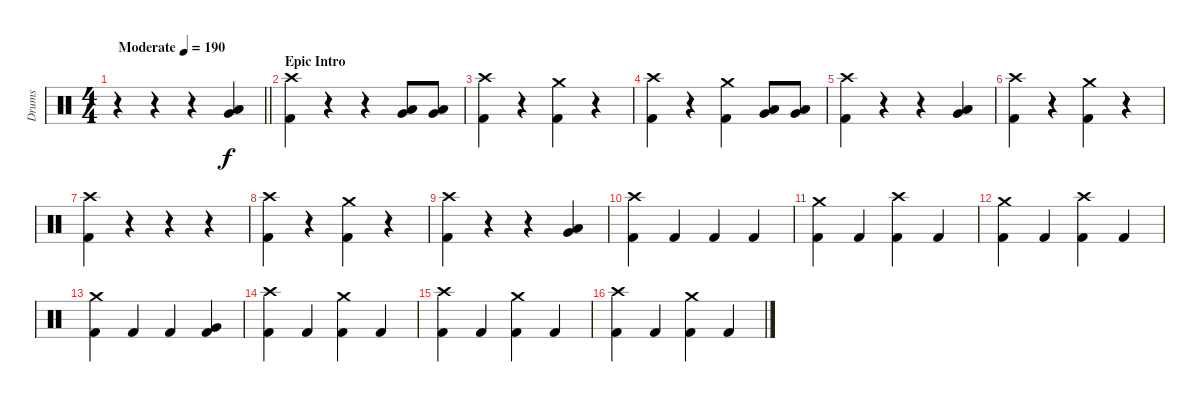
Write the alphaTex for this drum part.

\track ("Drums" "Drums") {instrument percussion}
\staff {score}
\articulation defaults
\ts (4 4)
\tempo (190 "Moderate")
\clef neutral
\barLineRight lightlight
\ks c
r.4{dy f} r.4 r.4 ("Very Low Tom (hit)" "Low Floor Tom (hit)").4 |
\section ("" "Epic Intro")
("Crash high (hit)" "Kick (hit) 2").4 r.4 r.4 ("Very Low Tom (hit)" "Low Floor Tom (hit)").8 ("Very Low Tom (hit)" "Low Floor Tom (hit)").8 |
("Crash high (hit)" "Kick (hit) 2").4 r.4 ("Crash medium (hit)" "Kick (hit) 2").4 r.4 |
("Crash high (hit)" "Kick (hit) 2").4 r.4 ("Crash medium (hit)" "Kick (hit) 2").4 ("Very Low Tom (hit)" "Low Floor Tom (hit)").8 ("Very Low Tom (hit)" "Low Floor Tom (hit)").8 |
("Crash high (hit)" "Kick (hit) 2").4 r.4 r.4 ("Very Low Tom (hit)" "Low Floor Tom (hit)").4 |
("Crash high (hit)" "Kick (hit) 2").4 r.4 ("Crash medium (hit)" "Kick (hit) 2").4 r.4 |
("Crash high (hit)" "Kick (hit) 2").4 r.4 r.4 r.4 |
("Crash high (hit)" "Kick (hit) 2").4 r.4 ("Crash medium (hit)" "Kick (hit) 2").4 r.4 |
("Crash high (hit)" "Kick (hit) 2").4 r.4 r.4 ("Very Low Tom (hit)" "Low Floor Tom (hit)").4 |
("Crash high (hit)" "Kick (hit) 2").4 "Kick (hit) 2".4 "Kick (hit) 2".4 "Kick (hit) 2".4 |
("Crash medium (hit)" "Kick (hit) 2").4 "Kick (hit) 2".4 ("Crash high (hit)" "Kick (hit) 2").4 "Kick (hit) 2".4 |
("Crash medium (hit)" "Kick (hit) 2").4 "Kick (hit) 2".4 ("Crash high (hit)" "Kick (hit) 2").4 "Kick (hit) 2".4 |
("Crash medium (hit)" "Kick (hit) 2").4 "Kick (hit) 2".4 "Kick (hit) 2".4 ("Very Low Tom (hit)" "Kick (hit) 2").4 |
("Crash high (hit)" "Kick (hit) 2").4 "Kick (hit) 2".4 ("Crash medium (hit)" "Kick (hit) 2").4 "Kick (hit) 2".4 |
("Crash high (hit)" "Kick (hit) 2").4 "Kick (hit) 2".4 ("Crash medium (hit)" "Kick (hit) 2").4 "Kick (hit) 2".4 |
("Crash high (hit)" "Kick (hit) 2").4 "Kick (hit) 2".4 ("Crash medium (hit)" "Kick (hit) 2").4 "Kick (hit) 2".4
